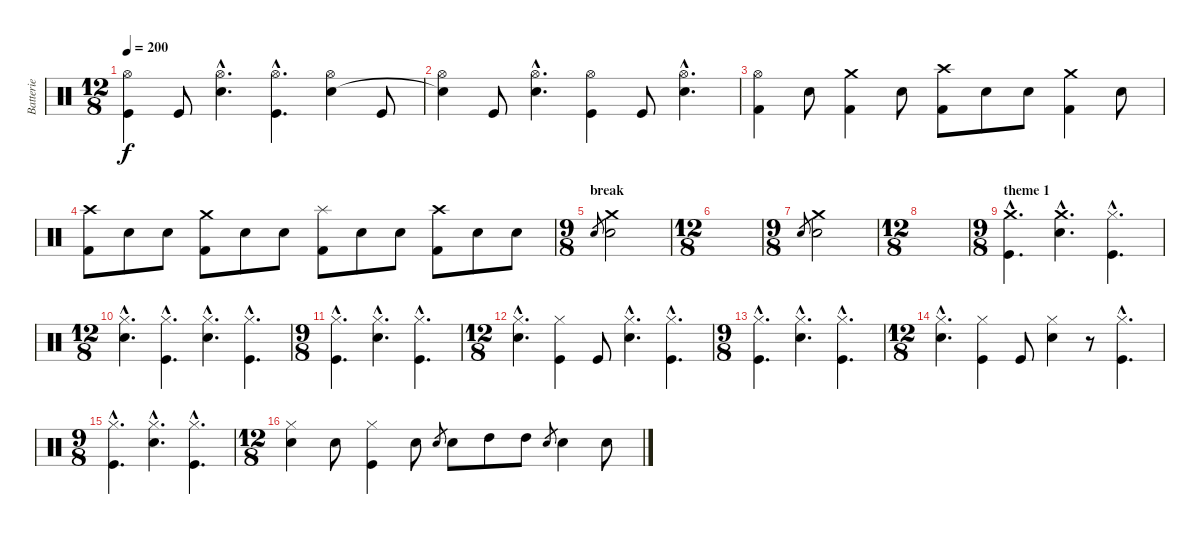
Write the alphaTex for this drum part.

\track ("Batterie" "Batterie") {instrument percussion}
\staff {score}
\articulation defaults
\ts (12 8)
\tempo 200
\clef neutral
\ks c
("Hi-Hat (open)" "Kick (hit)").4{dy f} "Kick (hit)".8 ("Hi-Hat (open)"{hac} "Electric Snare (hit)"{hac}).4{d} ("Hi-Hat (open)"{hac} "Kick (hit)"{hac}).4{d} ("Hi-Hat (open)" "Electric Snare (hit)").4 "Kick (hit)".8 |
("Hi-Hat (open)" "Snare (hit)"{t}).4 "Kick (hit)".8 ("Hi-Hat (open)"{hac} "Electric Snare (hit)"{hac}).4{d} ("Hi-Hat (open)" "Kick (hit)").4 "Kick (hit)".8 ("Hi-Hat (open)"{hac} "Electric Snare (hit)"{hac}).4{d} |
("Hi-Hat (open)" "Kick (hit) 2").4 "Electric Snare (hit)".8 ("Crash medium (hit)" "Kick (hit) 2").4 "Electric Snare (hit)".8 ("Crash high (hit)" "Kick (hit) 2").8 "Electric Snare (hit)".8 "Electric Snare (hit)".8 ("Crash medium (hit)" "Kick (hit) 2").4 "Electric Snare (hit)".8 |
("Crash high (hit)" "Kick (hit) 2").8 "Electric Snare (hit)".8 "Electric Snare (hit)".8 ("Crash medium (hit)" "Kick (hit) 2").8 "Electric Snare (hit)".8 "Electric Snare (hit)".8 ("Splash (hit)" "Kick (hit) 2").8 "Electric Snare (hit)".8 "Electric Snare (hit)".8 ("Crash high (hit)" "Kick (hit) 2").8 "Electric Snare (hit)".8 "Electric Snare (hit)".8 |
\ts (9 8)
\section ("" "break")
"Electric Snare (hit)".8{gr} ("Crash medium (hit)" "Electric Snare (hit)").2 |
\ts (12 8)
|
\ts (9 8)
"Electric Snare (hit)".8{gr} ("Crash medium (hit)" "Electric Snare (hit)").2 |
\ts (12 8)
|
\ts (9 8)
\section ("" "theme 1")
("Crash medium (hit)"{hac} "Kick (hit)"{hac}).4{d} ("Crash medium (hit)"{hac} "Electric Snare (hit)"{hac}).4{d} ("Hi-Hat (closed)"{hac} "Kick (hit)"{hac}).4{d} |
\ts (12 8)
("Hi-Hat (closed)"{hac} "Electric Snare (hit)"{hac}).4{d} ("Hi-Hat (closed)"{hac} "Kick (hit)"{hac}).4{d} ("Hi-Hat (closed)"{hac} "Electric Snare (hit)"{hac}).4{d} ("Hi-Hat (closed)"{hac} "Kick (hit)"{hac}).4{d} |
\ts (9 8)
("Hi-Hat (closed)"{hac} "Kick (hit)"{hac}).4{d} ("Hi-Hat (closed)"{hac} "Electric Snare (hit)"{hac}).4{d} ("Hi-Hat (closed)"{hac} "Kick (hit)"{hac}).4{d} |
\ts (12 8)
("Hi-Hat (closed)"{hac} "Electric Snare (hit)"{hac}).4{d} ("Hi-Hat (closed)" "Kick (hit)").4 "Kick (hit)".8 ("Hi-Hat (closed)"{hac} "Electric Snare (hit)"{hac}).4{d} ("Hi-Hat (closed)"{hac} "Kick (hit)"{hac}).4{d} |
\ts (9 8)
("Hi-Hat (closed)"{hac} "Kick (hit)"{hac}).4{d} ("Hi-Hat (closed)"{hac} "Electric Snare (hit)"{hac}).4{d} ("Hi-Hat (closed)"{hac} "Kick (hit)"{hac}).4{d} |
\ts (12 8)
("Hi-Hat (closed)"{hac} "Electric Snare (hit)"{hac}).4{d} ("Hi-Hat (closed)" "Kick (hit)").4 "Kick (hit)".8 ("Hi-Hat (closed)" "Electric Snare (hit)").4 r.8 ("Hi-Hat (closed)"{hac} "Kick (hit)"{hac}).4{d} |
\ts (9 8)
("Hi-Hat (closed)"{hac} "Kick (hit)"{hac}).4{d} ("Hi-Hat (closed)"{hac} "Electric Snare (hit)"{hac}).4{d} ("Hi-Hat (closed)"{hac} "Kick (hit)"{hac}).4{d} |
\ts (12 8)
("Hi-Hat (closed)" "Electric Snare (hit)").4 "Electric Snare (hit)".8 ("Hi-Hat (closed)" "Kick (hit)").4 "Electric Snare (hit)".8 "Electric Snare (hit)".8{gr} "Electric Snare (hit)".8 "High Tom (hit)".8 "High Tom (hit)".8 "Electric Snare (hit)".8{gr} "Electric Snare (hit)".4 "Electric Snare (hit)".8
